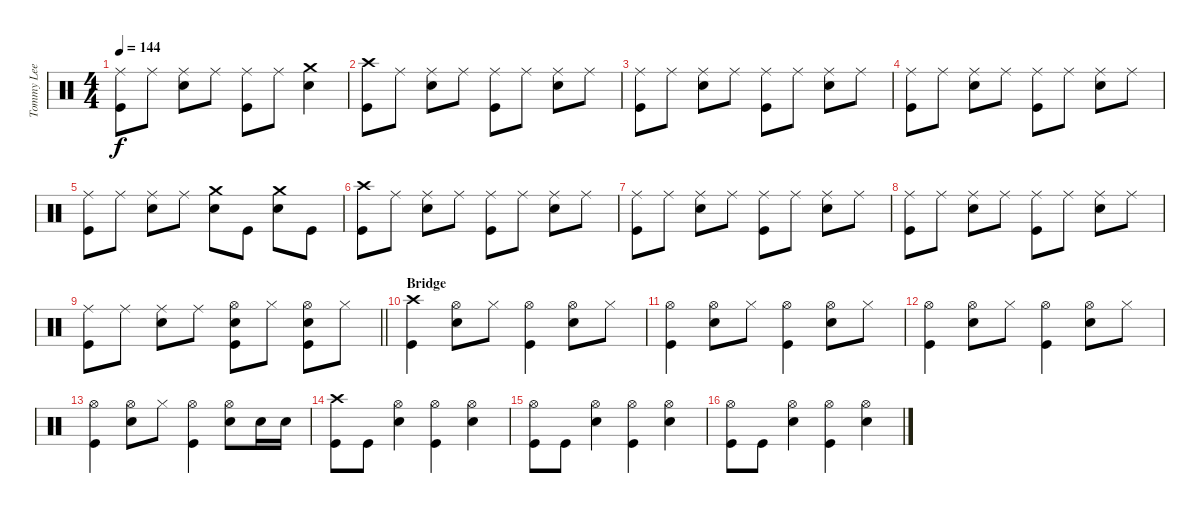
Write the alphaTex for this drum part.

\track ("Tommy Lee" "Tommy Lee") {instrument percussion}
\staff {score}
\articulation defaults
\ts (4 4)
\tempo 144
\clef neutral
\ks c
("Ride (middle)" "Kick (hit)").8{dy f} "Ride (middle)".8 ("Ride (middle)" "Snare (hit) 2").8 "Ride (middle)".8 ("Ride (middle)" "Kick (hit)").8 "Ride (middle)".8 ("Crash medium (hit)" "Snare (hit) 2").4 |
("Crash high (hit)" "Kick (hit)").8 "Ride (middle)".8 ("Ride (middle)" "Snare (hit) 2").8 "Ride (middle)".8 ("Ride (middle)" "Kick (hit)").8 "Ride (middle)".8 ("Ride (middle)" "Snare (hit) 2").8 "Ride (middle)".8 |
("Ride (middle)" "Kick (hit)").8 "Ride (middle)".8 ("Ride (middle)" "Snare (hit) 2").8 "Ride (middle)".8 ("Ride (middle)" "Kick (hit)").8 "Ride (middle)".8 ("Ride (middle)" "Snare (hit) 2").8 "Ride (middle)".8 |
("Ride (middle)" "Kick (hit)").8 "Ride (middle)".8 ("Ride (middle)" "Snare (hit) 2").8 "Ride (middle)".8 ("Ride (middle)" "Kick (hit)").8 "Ride (middle)".8 ("Ride (middle)" "Snare (hit) 2").8 "Ride (middle)".8 |
("Ride (middle)" "Kick (hit)").8 "Ride (middle)".8 ("Ride (middle)" "Snare (hit) 2").8 "Ride (middle)".8 ("Crash medium (hit)" "Snare (hit) 2").8 "Kick (hit)".8 ("Crash medium (hit)" "Snare (hit) 2").8 "Kick (hit)".8 |
("Crash high (hit)" "Kick (hit)").8 "Ride (middle)".8 ("Ride (middle)" "Snare (hit) 2").8 "Ride (middle)".8 ("Ride (middle)" "Kick (hit)").8 "Ride (middle)".8 ("Ride (middle)" "Snare (hit) 2").8 "Ride (middle)".8 |
("Ride (middle)" "Kick (hit)").8 "Ride (middle)".8 ("Ride (middle)" "Snare (hit) 2").8 "Ride (middle)".8 ("Ride (middle)" "Kick (hit)").8 "Ride (middle)".8 ("Ride (middle)" "Snare (hit) 2").8 "Ride (middle)".8 |
("Ride (middle)" "Kick (hit)").8 "Ride (middle)".8 ("Ride (middle)" "Snare (hit) 2").8 "Ride (middle)".8 ("Ride (middle)" "Kick (hit)").8 "Ride (middle)".8 ("Ride (middle)" "Snare (hit) 2").8 "Ride (middle)".8 |
\barLineRight lightlight
("Ride (middle)" "Kick (hit)").8 "Ride (middle)".8 ("Ride (middle)" "Snare (hit) 2").8 "Ride (middle)".8 ("Hi-Hat (open)" "Snare (hit) 2" "Kick (hit)").8 "Hi-Hat (closed)".8 ("Hi-Hat (open)" "Snare (hit) 2" "Kick (hit)").8 "Hi-Hat (closed)".8 |
\section ("" "Bridge")
("Crash high (hit)" "Kick (hit)").4 ("Hi-Hat (open)" "Snare (hit) 2").8 "Hi-Hat (closed)".8 ("Hi-Hat (open)" "Kick (hit)").4 ("Hi-Hat (open)" "Snare (hit) 2").8 "Hi-Hat (closed)".8 |
("Hi-Hat (open)" "Kick (hit)").4 ("Hi-Hat (open)" "Snare (hit) 2").8 "Hi-Hat (closed)".8 ("Hi-Hat (open)" "Kick (hit)").4 ("Hi-Hat (open)" "Snare (hit) 2").8 "Hi-Hat (closed)".8 |
("Hi-Hat (open)" "Kick (hit)").4 ("Hi-Hat (open)" "Snare (hit) 2").8 "Hi-Hat (closed)".8 ("Hi-Hat (open)" "Kick (hit)").4 ("Hi-Hat (open)" "Snare (hit) 2").8 "Hi-Hat (closed)".8 |
("Hi-Hat (open)" "Kick (hit)").4 ("Hi-Hat (open)" "Snare (hit) 2").8 "Hi-Hat (closed)".8 ("Hi-Hat (open)" "Kick (hit)").4 ("Hi-Hat (open)" "Snare (hit) 2").8 "Snare (hit) 2".16 "Snare (hit) 2".16 |
("Crash high (hit)" "Kick (hit)").8 "Kick (hit)".8 ("Hi-Hat (open)" "Snare (hit) 2").4 ("Hi-Hat (open)" "Kick (hit)").4 ("Hi-Hat (open)" "Snare (hit) 2").4 |
("Hi-Hat (open)" "Kick (hit)").8 "Kick (hit)".8 ("Hi-Hat (open)" "Snare (hit) 2").4 ("Hi-Hat (open)" "Kick (hit)").4 ("Hi-Hat (open)" "Snare (hit) 2").4 |
("Hi-Hat (open)" "Kick (hit)").8 "Kick (hit)".8 ("Hi-Hat (open)" "Snare (hit) 2").4 ("Hi-Hat (open)" "Kick (hit)").4 ("Hi-Hat (open)" "Snare (hit) 2").4
